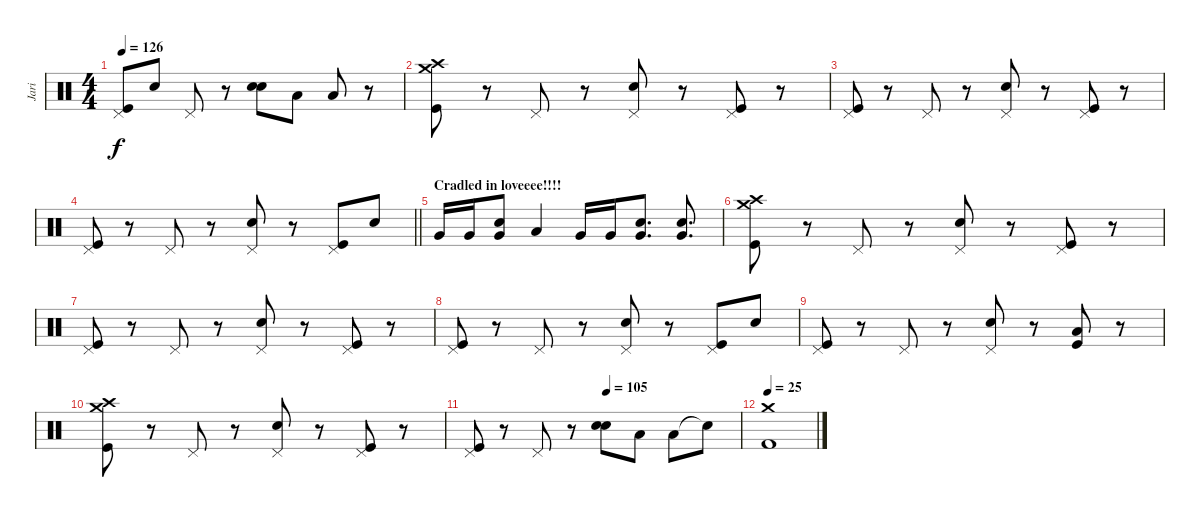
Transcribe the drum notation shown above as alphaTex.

\track ("Jari" "Jari") {instrument percussion}
\staff {score}
\articulation defaults
\ts (4 4)
\tempo 126
\clef neutral
\ks c
("Pedal Hi-Hat (hit)" "Kick (hit)").8{dy f} "Snare (hit) 2".8 "Pedal Hi-Hat (hit)".8 r.8 ("Snare (hit) 2" "Snare (hit) 2").8{bd 480} "Low Tom (hit)".8 "Low Tom (hit)".8 r.8 |
("Crash medium (hit)" "Crash high (hit)" "Kick (hit)").8 r.8 "Pedal Hi-Hat (hit)".8 r.8 ("Pedal Hi-Hat (hit)" "Snare (hit) 2").8 r.8 ("Pedal Hi-Hat (hit)" "Kick (hit)").8 r.8 |
("Pedal Hi-Hat (hit)" "Kick (hit)").8 r.8 "Pedal Hi-Hat (hit)".8 r.8 ("Pedal Hi-Hat (hit)" "Snare (hit) 2").8 r.8 ("Pedal Hi-Hat (hit)" "Kick (hit)").8 r.8 |
\barLineRight lightlight
("Pedal Hi-Hat (hit)" "Kick (hit)").8 r.8 "Pedal Hi-Hat (hit)".8 r.8 ("Pedal Hi-Hat (hit)" "Snare (hit) 2").8 r.8 ("Pedal Hi-Hat (hit)" "Kick (hit)").8 "Snare (hit) 2".8 |
\section ("" "Cradled in loveeee!!!!")
"Very Low Tom (hit)".16 "Very Low Tom (hit)".16 ("Snare (hit) 2" "Very Low Tom (hit)").8 "Low Tom (hit)".4 "Very Low Tom (hit)".16 "Very Low Tom (hit)".16 ("Snare (hit) 2" "Very Low Tom (hit)").8{d} ("Snare (hit) 2" "Very Low Tom (hit)").8{d} |
("Crash medium (hit)" "Crash high (hit)" "Kick (hit)").8 r.8 "Pedal Hi-Hat (hit)".8 r.8 ("Pedal Hi-Hat (hit)" "Snare (hit) 2").8 r.8 ("Pedal Hi-Hat (hit)" "Kick (hit)").8 r.8 |
("Pedal Hi-Hat (hit)" "Kick (hit)").8 r.8 "Pedal Hi-Hat (hit)".8 r.8 ("Pedal Hi-Hat (hit)" "Snare (hit) 2").8 r.8 ("Pedal Hi-Hat (hit)" "Kick (hit)").8 r.8 |
("Pedal Hi-Hat (hit)" "Kick (hit)").8 r.8 "Pedal Hi-Hat (hit)".8 r.8 ("Pedal Hi-Hat (hit)" "Snare (hit) 2").8 r.8 ("Pedal Hi-Hat (hit)" "Kick (hit)").8 "Snare (hit) 2".8 |
("Pedal Hi-Hat (hit)" "Kick (hit)").8 r.8 "Pedal Hi-Hat (hit)".8 r.8 ("Pedal Hi-Hat (hit)" "Snare (hit) 2").8 r.8 ("Low Tom (hit)" "Kick (hit)").8 r.8 |
("Crash medium (hit)" "Crash high (hit)" "Kick (hit)").8 r.8 "Pedal Hi-Hat (hit)".8 r.8 ("Pedal Hi-Hat (hit)" "Snare (hit) 2").8 r.8 ("Pedal Hi-Hat (hit)" "Kick (hit)").8 r.8 |
\tempo (105 0.5)
("Pedal Hi-Hat (hit)" "Kick (hit)").8 r.8 "Pedal Hi-Hat (hit)".8 r.8 ("Snare (hit) 2" "Snare (hit) 2").8{bd 480} "Low Tom (hit)".8 "Low Tom (hit)".8 "Snare (hit)"{t}.8 |
\tempo 25
("Crash medium (hit)" "Kick (hit) 2").1
